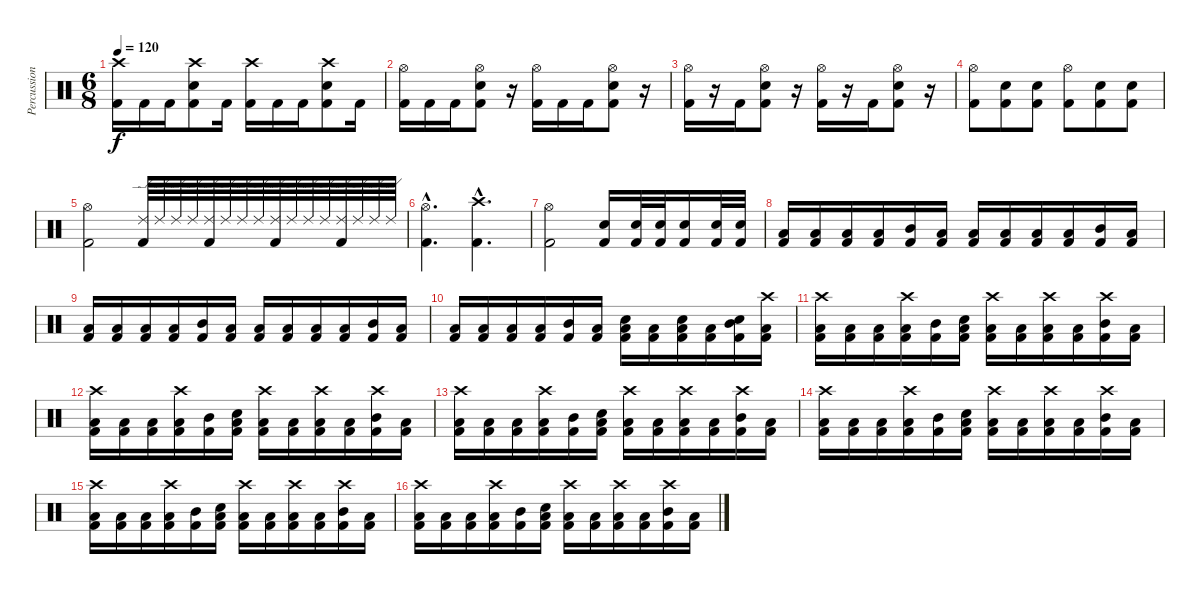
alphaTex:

\track ("Percussion" "Percussion") {instrument percussion}
\staff {score}
\articulation defaults
\ts (6 8)
\tempo 120
\clef neutral
\ks c
("Crash high (hit)" "Kick (hit) 2").16{dy f} "Kick (hit) 2".16 "Kick (hit) 2".16 ("Crash high (hit)" "Snare (hit) 2" "Kick (hit) 2").8 "Kick (hit) 2".16 ("Crash high (hit)" "Kick (hit) 2").16 "Kick (hit) 2".16 "Kick (hit) 2".16 ("Crash high (hit)" "Snare (hit) 2" "Kick (hit) 2").8 "Kick (hit) 2".16 |
("Hi-Hat (open)" "Kick (hit) 2").16 "Kick (hit) 2".16 "Kick (hit) 2".16 ("Hi-Hat (open)" "Snare (hit) 2" "Kick (hit) 2").8 r.16 ("Hi-Hat (open)" "Kick (hit) 2").16 "Kick (hit) 2".16 "Kick (hit) 2".16 ("Hi-Hat (open)" "Snare (hit) 2" "Kick (hit) 2").8 r.16 |
("Hi-Hat (open)" "Kick (hit) 2").16 r.16 "Kick (hit) 2".16 ("Hi-Hat (open)" "Snare (hit) 2" "Kick (hit) 2").8 r.16 ("Hi-Hat (open)" "Kick (hit) 2").16 r.16 "Kick (hit) 2".16 ("Hi-Hat (open)" "Snare (hit) 2" "Kick (hit) 2").8 r.16 |
("Hi-Hat (open)" "Kick (hit) 2").8 ("Electric Snare (hit)" "Kick (hit) 2").8 ("Electric Snare (hit)" "Kick (hit) 2").8 ("Hi-Hat (open)" "Kick (hit) 2").8 ("Electric Snare (hit)" "Kick (hit) 2").8 ("Electric Snare (hit)" "Kick (hit) 2").8 |
("Hi-Hat (open)" "Kick (hit) 2").2 ("Ride (edge) 2" "Kick (hit) 2").64 "Ride (edge) 2".64 "Ride (edge) 2".64 "Ride (edge) 2".64 ("Ride (edge) 2" "Kick (hit) 2").64 "Ride (edge) 2".64 "Ride (edge) 2".64 "Ride (edge) 2".64 ("Ride (edge) 2" "Kick (hit) 2").64 "Ride (edge) 2".64 "Ride (edge) 2".64 "Ride (edge) 2".64 ("Ride (edge) 2" "Kick (hit) 2").64 "Ride (edge) 2".64 "Ride (edge) 2".64 "Ride (edge) 2".64 |
("Hi-Hat (open)"{hac} "Kick (hit) 2"{hac}).4{d} ("Crash high (hit)"{hac} "Kick (hit) 2"{hac}).4{d} |
("Hi-Hat (open)" "Kick (hit) 2").2 ("Electric Snare (hit)" "Kick (hit) 2").16 ("Electric Snare (hit)" "Kick (hit) 2").32 ("Electric Snare (hit)" "Kick (hit) 2").32 ("Electric Snare (hit)" "Kick (hit) 2").16 ("Electric Snare (hit)" "Kick (hit) 2").32 ("Electric Snare (hit)" "Kick (hit) 2").32 |
("Low Floor Tom (hit)" "Kick (hit) 2").16 ("Low Tom (hit)" "Kick (hit) 2").16 ("Low Floor Tom (hit)" "Kick (hit) 2").16 ("Low Floor Tom (hit)" "Kick (hit) 2").16 ("Mid Tom (hit)" "Kick (hit) 2").16 ("Low Tom (hit)" "Kick (hit) 2").16 ("Low Floor Tom (hit)" "Kick (hit) 2").16 ("Low Floor Tom (hit)" "Kick (hit) 2").16 ("Low Floor Tom (hit)" "Kick (hit) 2").16 ("Low Tom (hit)" "Kick (hit) 2").16 ("Mid Tom (hit)" "Kick (hit) 2").16 ("Low Tom (hit)" "Kick (hit) 2").16 |
("Low Floor Tom (hit)" "Kick (hit) 2").16 ("Low Tom (hit)" "Kick (hit) 2").16 ("Low Floor Tom (hit)" "Kick (hit) 2").16 ("Low Floor Tom (hit)" "Kick (hit) 2").16 ("Mid Tom (hit)" "Kick (hit) 2").16 ("Low Tom (hit)" "Kick (hit) 2").16 ("Low Floor Tom (hit)" "Kick (hit) 2").16 ("Low Floor Tom (hit)" "Kick (hit) 2").16 ("Low Floor Tom (hit)" "Kick (hit) 2").16 ("Low Tom (hit)" "Kick (hit) 2").16 ("Mid Tom (hit)" "Kick (hit) 2").16 ("Low Tom (hit)" "Kick (hit) 2").16 |
("Low Floor Tom (hit)" "Kick (hit) 2").16 ("Low Tom (hit)" "Kick (hit) 2").16 ("Low Floor Tom (hit)" "Kick (hit) 2").16 ("Low Floor Tom (hit)" "Kick (hit) 2").16 ("Mid Tom (hit)" "Kick (hit) 2").16 ("Low Tom (hit)" "Kick (hit) 2").16 ("Low Floor Tom (hit)" "Electric Snare (hit)" "Kick (hit) 2").16 ("Low Floor Tom (hit)" "Kick (hit) 2").16 ("Low Floor Tom (hit)" "Electric Snare (hit)" "Kick (hit) 2").16 ("Low Tom (hit)" "Kick (hit) 2").16 ("Mid Tom (hit)" "Electric Snare (hit)" "Kick (hit) 2").16 ("Crash high (hit)" "Low Tom (hit)" "Kick (hit) 2").16 |
("Crash high (hit)" "Low Floor Tom (hit)" "Kick (hit) 2").16 ("Low Tom (hit)" "Kick (hit) 2").16 ("Low Floor Tom (hit)" "Kick (hit) 2").16 ("Crash high (hit)" "Low Floor Tom (hit)" "Kick (hit) 2").16 ("Mid Tom (hit)" "Kick (hit) 2").16 ("Low Tom (hit)" "Electric Snare (hit)" "Kick (hit) 2").16 ("Crash high (hit)" "Low Floor Tom (hit)" "Kick (hit) 2").16 ("Low Floor Tom (hit)" "Kick (hit) 2").16 ("Crash high (hit)" "Low Floor Tom (hit)" "Kick (hit) 2").16 ("Low Tom (hit)" "Kick (hit) 2").16 ("Crash high (hit)" "Mid Tom (hit)" "Kick (hit) 2").16 ("Low Tom (hit)" "Kick (hit) 2").16 |
("Crash high (hit)" "Low Floor Tom (hit)" "Kick (hit) 2").16 ("Low Tom (hit)" "Kick (hit) 2").16 ("Low Floor Tom (hit)" "Kick (hit) 2").16 ("Crash high (hit)" "Low Floor Tom (hit)" "Kick (hit) 2").16 ("Mid Tom (hit)" "Kick (hit) 2").16 ("Low Tom (hit)" "Electric Snare (hit)" "Kick (hit) 2").16 ("Crash high (hit)" "Low Floor Tom (hit)" "Kick (hit) 2").16 ("Low Floor Tom (hit)" "Kick (hit) 2").16 ("Crash high (hit)" "Low Floor Tom (hit)" "Kick (hit) 2").16 ("Low Tom (hit)" "Kick (hit) 2").16 ("Crash high (hit)" "Mid Tom (hit)" "Kick (hit) 2").16 ("Low Tom (hit)" "Kick (hit) 2").16 |
("Crash high (hit)" "Low Floor Tom (hit)" "Kick (hit) 2").16 ("Low Tom (hit)" "Kick (hit) 2").16 ("Low Floor Tom (hit)" "Kick (hit) 2").16 ("Crash high (hit)" "Low Floor Tom (hit)" "Kick (hit) 2").16 ("Mid Tom (hit)" "Kick (hit) 2").16 ("Low Tom (hit)" "Electric Snare (hit)" "Kick (hit) 2").16 ("Crash high (hit)" "Low Floor Tom (hit)" "Kick (hit) 2").16 ("Low Floor Tom (hit)" "Kick (hit) 2").16 ("Crash high (hit)" "Low Floor Tom (hit)" "Kick (hit) 2").16 ("Low Tom (hit)" "Kick (hit) 2").16 ("Crash high (hit)" "Mid Tom (hit)" "Kick (hit) 2").16 ("Low Tom (hit)" "Kick (hit) 2").16 |
("Crash high (hit)" "Low Floor Tom (hit)" "Kick (hit) 2").16 ("Low Tom (hit)" "Kick (hit) 2").16 ("Low Floor Tom (hit)" "Kick (hit) 2").16 ("Crash high (hit)" "Low Floor Tom (hit)" "Kick (hit) 2").16 ("Mid Tom (hit)" "Kick (hit) 2").16 ("Low Tom (hit)" "Electric Snare (hit)" "Kick (hit) 2").16 ("Crash high (hit)" "Low Floor Tom (hit)" "Kick (hit) 2").16 ("Low Floor Tom (hit)" "Kick (hit) 2").16 ("Crash high (hit)" "Low Floor Tom (hit)" "Kick (hit) 2").16 ("Low Tom (hit)" "Kick (hit) 2").16 ("Crash high (hit)" "Mid Tom (hit)" "Kick (hit) 2").16 ("Low Tom (hit)" "Kick (hit) 2").16 |
("Crash high (hit)" "Low Floor Tom (hit)" "Kick (hit) 2").16 ("Low Tom (hit)" "Kick (hit) 2").16 ("Low Floor Tom (hit)" "Kick (hit) 2").16 ("Crash high (hit)" "Low Floor Tom (hit)" "Kick (hit) 2").16 ("Mid Tom (hit)" "Kick (hit) 2").16 ("Low Tom (hit)" "Electric Snare (hit)" "Kick (hit) 2").16 ("Crash high (hit)" "Low Floor Tom (hit)" "Kick (hit) 2").16 ("Low Floor Tom (hit)" "Kick (hit) 2").16 ("Crash high (hit)" "Low Floor Tom (hit)" "Kick (hit) 2").16 ("Low Tom (hit)" "Kick (hit) 2").16 ("Crash high (hit)" "Mid Tom (hit)" "Kick (hit) 2").16 ("Low Tom (hit)" "Kick (hit) 2").16 |
("Crash high (hit)" "Low Floor Tom (hit)" "Kick (hit) 2").16 ("Low Tom (hit)" "Kick (hit) 2").16 ("Low Floor Tom (hit)" "Kick (hit) 2").16 ("Crash high (hit)" "Low Floor Tom (hit)" "Kick (hit) 2").16 ("Mid Tom (hit)" "Kick (hit) 2").16 ("Low Tom (hit)" "Electric Snare (hit)" "Kick (hit) 2").16 ("Crash high (hit)" "Low Floor Tom (hit)" "Kick (hit) 2").16 ("Low Floor Tom (hit)" "Kick (hit) 2").16 ("Crash high (hit)" "Low Floor Tom (hit)" "Kick (hit) 2").16 ("Low Tom (hit)" "Kick (hit) 2").16 ("Crash high (hit)" "Mid Tom (hit)" "Kick (hit) 2").16 ("Low Tom (hit)" "Kick (hit) 2").16
